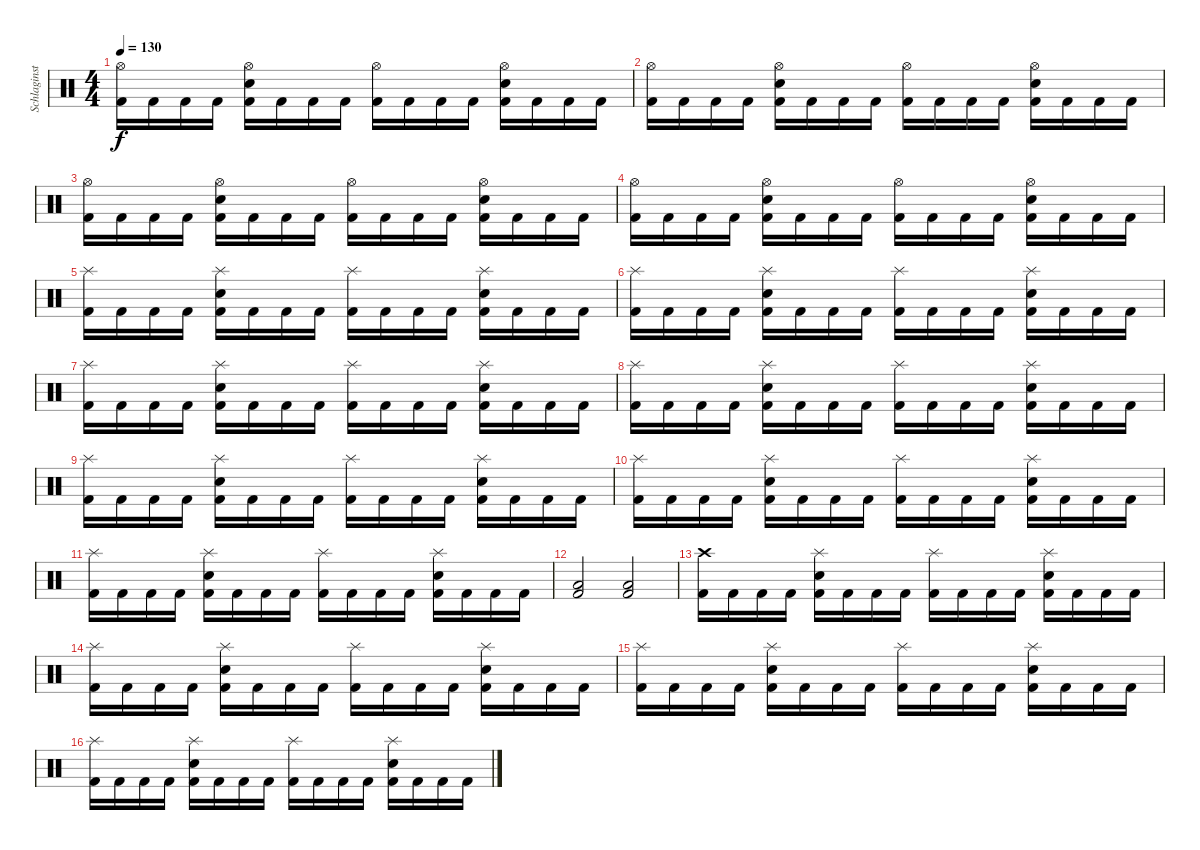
\track ("Schlaginstrumente - Auswahl" "Schlaginst") {instrument percussion}
\staff {score}
\articulation defaults
\ts (4 4)
\tempo 130
\clef neutral
\ks c
("Hi-Hat (open)" "Kick (hit) 2").16{dy f} "Kick (hit) 2".16 "Kick (hit) 2".16 "Kick (hit) 2".16 ("Hi-Hat (open)" "Snare (hit) 2" "Kick (hit) 2").16 "Kick (hit) 2".16 "Kick (hit) 2".16 "Kick (hit) 2".16 ("Hi-Hat (open)" "Kick (hit) 2").16 "Kick (hit) 2".16 "Kick (hit) 2".16 "Kick (hit) 2".16 ("Hi-Hat (open)" "Snare (hit) 2" "Kick (hit) 2").16 "Kick (hit) 2".16 "Kick (hit) 2".16 "Kick (hit) 2".16 |
("Hi-Hat (open)" "Kick (hit) 2").16 "Kick (hit) 2".16 "Kick (hit) 2".16 "Kick (hit) 2".16 ("Hi-Hat (open)" "Snare (hit) 2" "Kick (hit) 2").16 "Kick (hit) 2".16 "Kick (hit) 2".16 "Kick (hit) 2".16 ("Hi-Hat (open)" "Kick (hit) 2").16 "Kick (hit) 2".16 "Kick (hit) 2".16 "Kick (hit) 2".16 ("Hi-Hat (open)" "Snare (hit) 2" "Kick (hit) 2").16 "Kick (hit) 2".16 "Kick (hit) 2".16 "Kick (hit) 2".16 |
("Hi-Hat (open)" "Kick (hit) 2").16 "Kick (hit) 2".16 "Kick (hit) 2".16 "Kick (hit) 2".16 ("Hi-Hat (open)" "Snare (hit) 2" "Kick (hit) 2").16 "Kick (hit) 2".16 "Kick (hit) 2".16 "Kick (hit) 2".16 ("Hi-Hat (open)" "Kick (hit) 2").16 "Kick (hit) 2".16 "Kick (hit) 2".16 "Kick (hit) 2".16 ("Hi-Hat (open)" "Snare (hit) 2" "Kick (hit) 2").16 "Kick (hit) 2".16 "Kick (hit) 2".16 "Kick (hit) 2".16 |
("Hi-Hat (open)" "Kick (hit) 2").16 "Kick (hit) 2".16 "Kick (hit) 2".16 "Kick (hit) 2".16 ("Hi-Hat (open)" "Snare (hit) 2" "Kick (hit) 2").16 "Kick (hit) 2".16 "Kick (hit) 2".16 "Kick (hit) 2".16 ("Hi-Hat (open)" "Kick (hit) 2").16 "Kick (hit) 2".16 "Kick (hit) 2".16 "Kick (hit) 2".16 ("Hi-Hat (open)" "Snare (hit) 2" "Kick (hit) 2").16 "Kick (hit) 2".16 "Kick (hit) 2".16 "Kick (hit) 2".16 |
("Splash (hit)" "Kick (hit) 2").16 "Kick (hit) 2".16 "Kick (hit) 2".16 "Kick (hit) 2".16 ("Splash (hit)" "Snare (hit) 2" "Kick (hit) 2").16 "Kick (hit) 2".16 "Kick (hit) 2".16 "Kick (hit) 2".16 ("Splash (hit)" "Kick (hit) 2").16 "Kick (hit) 2".16 "Kick (hit) 2".16 "Kick (hit) 2".16 ("Splash (hit)" "Snare (hit) 2" "Kick (hit) 2").16 "Kick (hit) 2".16 "Kick (hit) 2".16 "Kick (hit) 2".16 |
("Splash (hit)" "Kick (hit) 2").16 "Kick (hit) 2".16 "Kick (hit) 2".16 "Kick (hit) 2".16 ("Splash (hit)" "Snare (hit) 2" "Kick (hit) 2").16 "Kick (hit) 2".16 "Kick (hit) 2".16 "Kick (hit) 2".16 ("Splash (hit)" "Kick (hit) 2").16 "Kick (hit) 2".16 "Kick (hit) 2".16 "Kick (hit) 2".16 ("Splash (hit)" "Snare (hit) 2" "Kick (hit) 2").16 "Kick (hit) 2".16 "Kick (hit) 2".16 "Kick (hit) 2".16 |
("Splash (hit)" "Kick (hit) 2").16 "Kick (hit) 2".16 "Kick (hit) 2".16 "Kick (hit) 2".16 ("Splash (hit)" "Snare (hit) 2" "Kick (hit) 2").16 "Kick (hit) 2".16 "Kick (hit) 2".16 "Kick (hit) 2".16 ("Splash (hit)" "Kick (hit) 2").16 "Kick (hit) 2".16 "Kick (hit) 2".16 "Kick (hit) 2".16 ("Splash (hit)" "Snare (hit) 2" "Kick (hit) 2").16 "Kick (hit) 2".16 "Kick (hit) 2".16 "Kick (hit) 2".16 |
("Splash (hit)" "Kick (hit) 2").16 "Kick (hit) 2".16 "Kick (hit) 2".16 "Kick (hit) 2".16 ("Splash (hit)" "Snare (hit) 2" "Kick (hit) 2").16 "Kick (hit) 2".16 "Kick (hit) 2".16 "Kick (hit) 2".16 ("Splash (hit)" "Kick (hit) 2").16 "Kick (hit) 2".16 "Kick (hit) 2".16 "Kick (hit) 2".16 ("Splash (hit)" "Snare (hit) 2" "Kick (hit) 2").16 "Kick (hit) 2".16 "Kick (hit) 2".16 "Kick (hit) 2".16 |
("Splash (hit)" "Kick (hit) 2").16 "Kick (hit) 2".16 "Kick (hit) 2".16 "Kick (hit) 2".16 ("Splash (hit)" "Snare (hit) 2" "Kick (hit) 2").16 "Kick (hit) 2".16 "Kick (hit) 2".16 "Kick (hit) 2".16 ("Splash (hit)" "Kick (hit) 2").16 "Kick (hit) 2".16 "Kick (hit) 2".16 "Kick (hit) 2".16 ("Splash (hit)" "Snare (hit) 2" "Kick (hit) 2").16 "Kick (hit) 2".16 "Kick (hit) 2".16 "Kick (hit) 2".16 |
("Splash (hit)" "Kick (hit) 2").16 "Kick (hit) 2".16 "Kick (hit) 2".16 "Kick (hit) 2".16 ("Splash (hit)" "Snare (hit) 2" "Kick (hit) 2").16 "Kick (hit) 2".16 "Kick (hit) 2".16 "Kick (hit) 2".16 ("Splash (hit)" "Kick (hit) 2").16 "Kick (hit) 2".16 "Kick (hit) 2".16 "Kick (hit) 2".16 ("Splash (hit)" "Snare (hit) 2" "Kick (hit) 2").16 "Kick (hit) 2".16 "Kick (hit) 2".16 "Kick (hit) 2".16 |
("Splash (hit)" "Kick (hit) 2").16 "Kick (hit) 2".16 "Kick (hit) 2".16 "Kick (hit) 2".16 ("Splash (hit)" "Snare (hit) 2" "Kick (hit) 2").16 "Kick (hit) 2".16 "Kick (hit) 2".16 "Kick (hit) 2".16 ("Splash (hit)" "Kick (hit) 2").16 "Kick (hit) 2".16 "Kick (hit) 2".16 "Kick (hit) 2".16 ("Splash (hit)" "Snare (hit) 2" "Kick (hit) 2").16 "Kick (hit) 2".16 "Kick (hit) 2".16 "Kick (hit) 2".16 |
("Kick (hit) 2" "Low Floor Tom (hit)").2 ("Kick (hit) 2" "Low Tom (hit)").2 |
("Crash high (hit)" "Kick (hit) 2").16 "Kick (hit) 2".16 "Kick (hit) 2".16 "Kick (hit) 2".16 ("Splash (hit)" "Snare (hit) 2" "Kick (hit) 2").16 "Kick (hit) 2".16 "Kick (hit) 2".16 "Kick (hit) 2".16 ("Splash (hit)" "Kick (hit) 2").16 "Kick (hit) 2".16 "Kick (hit) 2".16 "Kick (hit) 2".16 ("Splash (hit)" "Snare (hit) 2" "Kick (hit) 2").16 "Kick (hit) 2".16 "Kick (hit) 2".16 "Kick (hit) 2".16 |
("Splash (hit)" "Kick (hit) 2").16 "Kick (hit) 2".16 "Kick (hit) 2".16 "Kick (hit) 2".16 ("Splash (hit)" "Snare (hit) 2" "Kick (hit) 2").16 "Kick (hit) 2".16 "Kick (hit) 2".16 "Kick (hit) 2".16 ("Splash (hit)" "Kick (hit) 2").16 "Kick (hit) 2".16 "Kick (hit) 2".16 "Kick (hit) 2".16 ("Splash (hit)" "Snare (hit) 2" "Kick (hit) 2").16 "Kick (hit) 2".16 "Kick (hit) 2".16 "Kick (hit) 2".16 |
("Splash (hit)" "Kick (hit) 2").16 "Kick (hit) 2".16 "Kick (hit) 2".16 "Kick (hit) 2".16 ("Splash (hit)" "Snare (hit) 2" "Kick (hit) 2").16 "Kick (hit) 2".16 "Kick (hit) 2".16 "Kick (hit) 2".16 ("Splash (hit)" "Kick (hit) 2").16 "Kick (hit) 2".16 "Kick (hit) 2".16 "Kick (hit) 2".16 ("Splash (hit)" "Snare (hit) 2" "Kick (hit) 2").16 "Kick (hit) 2".16 "Kick (hit) 2".16 "Kick (hit) 2".16 |
("Splash (hit)" "Kick (hit) 2").16 "Kick (hit) 2".16 "Kick (hit) 2".16 "Kick (hit) 2".16 ("Splash (hit)" "Snare (hit) 2" "Kick (hit) 2").16 "Kick (hit) 2".16 "Kick (hit) 2".16 "Kick (hit) 2".16 ("Splash (hit)" "Kick (hit) 2").16 "Kick (hit) 2".16 "Kick (hit) 2".16 "Kick (hit) 2".16 ("Splash (hit)" "Snare (hit) 2" "Kick (hit) 2").16 "Kick (hit) 2".16 "Kick (hit) 2".16 "Kick (hit) 2".16
